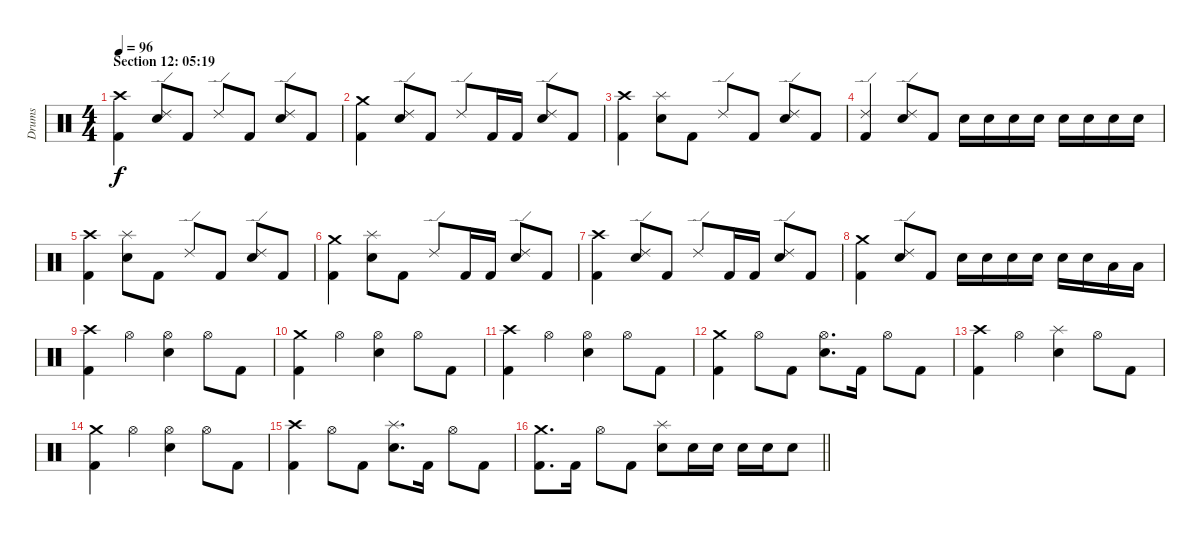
\track ("Drums" "Drums") {instrument percussion}
\staff {score}
\articulation defaults
\ts (4 4)
\section ("" "Section 12: 05:19")
\tempo 96
\clef neutral
\ks c
("Crash high (hit)" "Kick (hit) 2").4{dy f} ("Ride (edge) 2" "Electric Snare (hit)").8 "Kick (hit) 2".8 "Ride (edge) 2".8 "Kick (hit) 2".8 ("Ride (edge) 2" "Electric Snare (hit)").8 "Kick (hit) 2".8 |
("Crash medium (hit)" "Kick (hit) 2").4 ("Ride (edge) 2" "Electric Snare (hit)").8 "Kick (hit) 2".8 "Ride (edge) 2".8 "Kick (hit) 2".16 "Kick (hit) 2".16 ("Ride (edge) 2" "Electric Snare (hit)").8 "Kick (hit) 2".8 |
("Crash high (hit)" "Kick (hit) 2").4 ("Splash (hit)" "Electric Snare (hit)").8 "Kick (hit) 2".8 "Ride (edge) 2".8 "Kick (hit) 2".8 ("Ride (edge) 2" "Electric Snare (hit)").8 "Kick (hit) 2".8 |
("Ride (edge) 2" "Kick (hit) 2").4 ("Ride (edge) 2" "Electric Snare (hit)").8 "Kick (hit) 2".8 "Electric Snare (hit)".16 "Electric Snare (hit)".16 "Electric Snare (hit)".16 "Electric Snare (hit)".16 "Electric Snare (hit)".16 "Electric Snare (hit)".16 "Electric Snare (hit)".16 "Electric Snare (hit)".16 |
("Crash high (hit)" "Kick (hit) 2").4 ("Splash (hit)" "Electric Snare (hit)").8 "Kick (hit) 2".8 "Ride (edge) 2".8 "Kick (hit) 2".8 ("Ride (edge) 2" "Electric Snare (hit)").8 "Kick (hit) 2".8 |
("Crash medium (hit)" "Kick (hit) 2").4 ("Splash (hit)" "Electric Snare (hit)").8 "Kick (hit) 2".8 "Ride (edge) 2".8 "Kick (hit) 2".16 "Kick (hit) 2".16 ("Ride (edge) 2" "Electric Snare (hit)").8 "Kick (hit) 2".8 |
("Crash high (hit)" "Kick (hit) 2").4 ("Ride (edge) 2" "Electric Snare (hit)").8 "Kick (hit) 2".8 "Ride (edge) 2".8 "Kick (hit) 2".16 "Kick (hit) 2".16 ("Ride (edge) 2" "Electric Snare (hit)").8 "Kick (hit) 2".8 |
("Crash medium (hit)" "Kick (hit) 2").4 ("Ride (edge) 2" "Electric Snare (hit)").8 "Kick (hit) 2".8 "Electric Snare (hit)".16 "Electric Snare (hit)".16 "Electric Snare (hit)".16 "Electric Snare (hit)".16 "Electric Snare (hit)".16 "Electric Snare (hit)".16 "Low Tom (hit)".16 "Low Tom (hit)".16 |
("Crash high (hit)" "Kick (hit) 2").4 "Hi-Hat (open)".4 ("Hi-Hat (open)" "Electric Snare (hit)").4 "Hi-Hat (open)".8 "Kick (hit) 2".8 |
("Crash medium (hit)" "Kick (hit) 2").4 "Hi-Hat (open)".4 ("Hi-Hat (open)" "Electric Snare (hit)").4 "Hi-Hat (open)".8 "Kick (hit) 2".8 |
("Crash high (hit)" "Kick (hit) 2").4 "Hi-Hat (open)".4 ("Hi-Hat (open)" "Electric Snare (hit)").4 "Hi-Hat (open)".8 "Kick (hit) 2".8 |
("Crash medium (hit)" "Kick (hit) 2").4 "Hi-Hat (open)".8 "Kick (hit) 2".8 ("Hi-Hat (open)" "Electric Snare (hit)").8{d} "Kick (hit) 2".16 "Hi-Hat (open)".8 "Kick (hit) 2".8 |
("Crash high (hit)" "Kick (hit) 2").4 "Hi-Hat (open)".4 ("Splash (hit)" "Electric Snare (hit)").4 "Hi-Hat (open)".8 "Kick (hit) 2".8 |
("Crash medium (hit)" "Kick (hit) 2").4 "Hi-Hat (open)".4 ("Hi-Hat (open)" "Electric Snare (hit)").4 "Hi-Hat (open)".8 "Kick (hit) 2".8 |
("Crash high (hit)" "Kick (hit) 2").4 "Hi-Hat (open)".8 "Kick (hit) 2".8 ("Splash (hit)" "Electric Snare (hit)").8{d} "Kick (hit) 2".16 "Hi-Hat (open)".8 "Kick (hit) 2".8 |
\barLineRight lightlight
("Crash medium (hit)" "Kick (hit) 2").8{d} "Kick (hit) 2".16 "Hi-Hat (open)".8 "Kick (hit) 2".8 ("Splash (hit)" "Electric Snare (hit)").8 "Electric Snare (hit)".16 "Electric Snare (hit)".16 "Electric Snare (hit)".16 "Electric Snare (hit)".16 "Electric Snare (hit)".8
